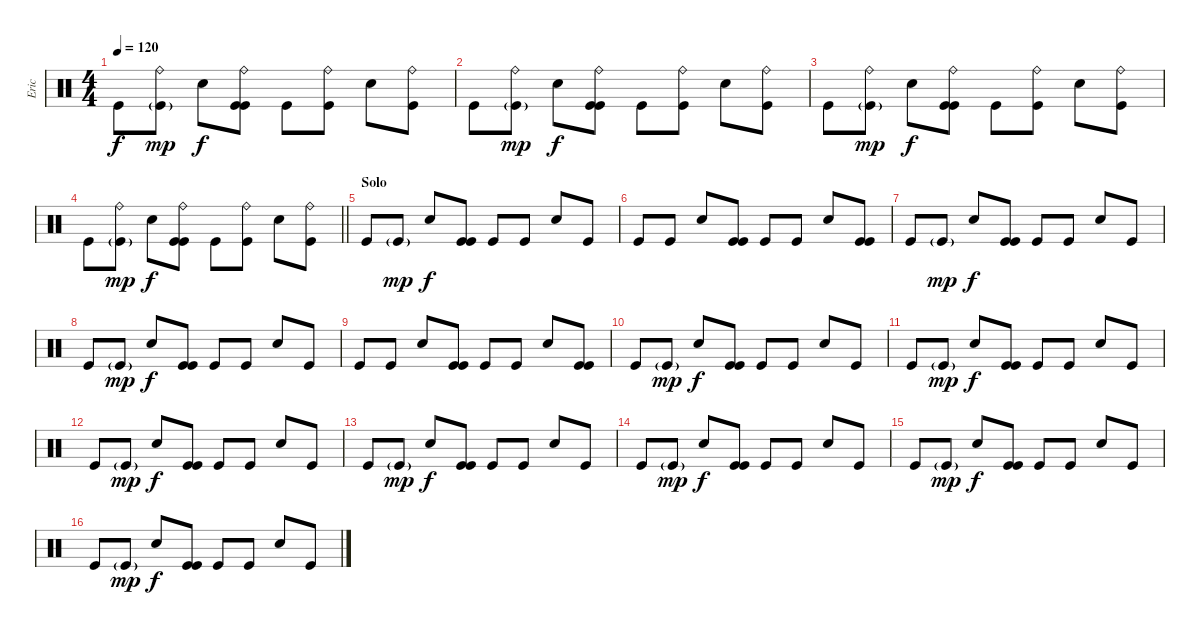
\track ("Eric" "Eric") {instrument percussion}
\staff {score}
\articulation defaults
\ts (4 4)
\tempo 120
\clef neutral
\ks c "Kick (hit)".8{dy f}
("Kick (hit)"{g} "Ride (bell)").8{dy mp} "Electric Snare (hit)".8{dy f} ("Kick (hit)" "Kick (hit)" "Ride (bell)").8 "Kick (hit)".8 ("Kick (hit)" "Ride (bell)").8 "Electric Snare (hit)".8 ("Kick (hit)" "Ride (bell)").8 |
"Kick (hit)".8 ("Kick (hit)"{g} "Ride (bell)").8{dy mp} "Electric Snare (hit)".8{dy f} ("Kick (hit)" "Kick (hit)" "Ride (bell)").8 "Kick (hit)".8 ("Kick (hit)" "Ride (bell)").8 "Electric Snare (hit)".8 ("Kick (hit)" "Ride (bell)").8 |
"Kick (hit)".8 ("Kick (hit)"{g} "Ride (bell)").8{dy mp} "Electric Snare (hit)".8{dy f} ("Kick (hit)" "Kick (hit)" "Ride (bell)").8 "Kick (hit)".8 ("Kick (hit)" "Ride (bell)").8 "Electric Snare (hit)".8 ("Kick (hit)" "Ride (bell)").8 |
\barLineRight lightlight "Kick (hit)".8
("Kick (hit)"{g} "Ride (bell)").8{dy mp} "Electric Snare (hit)".8{dy f} ("Kick (hit)" "Kick (hit)" "Ride (bell)").8 "Kick (hit)".8 ("Kick (hit)" "Ride (bell)").8 "Electric Snare (hit)".8 ("Kick (hit)" "Ride (bell)").8 |
\section ("" "Solo")
"Kick (hit)".8 "Kick (hit)"{g}.8{dy mp} "Electric Snare (hit)".8{dy f} ("Kick (hit)" "Kick (hit)").8 "Kick (hit)".8 "Kick (hit)".8 "Electric Snare (hit)".8 "Kick (hit)".8 |
"Kick (hit)".8 "Kick (hit)".8 "Electric Snare (hit)".8 ("Kick (hit)" "Kick (hit)").8 "Kick (hit)".8 "Kick (hit)".8 "Electric Snare (hit)".8 ("Kick (hit)" "Kick (hit)").8 |
"Kick (hit)".8 "Kick (hit)"{g}.8{dy mp} "Electric Snare (hit)".8{dy f} ("Kick (hit)" "Kick (hit)").8 "Kick (hit)".8 "Kick (hit)".8 "Electric Snare (hit)".8 "Kick (hit)".8 |
"Kick (hit)".8 "Kick (hit)"{g}.8{dy mp} "Electric Snare (hit)".8{dy f} ("Kick (hit)" "Kick (hit)").8 "Kick (hit)".8 "Kick (hit)".8 "Electric Snare (hit)".8 "Kick (hit)".8 |
"Kick (hit)".8 "Kick (hit)".8 "Electric Snare (hit)".8 ("Kick (hit)" "Kick (hit)").8 "Kick (hit)".8 "Kick (hit)".8 "Electric Snare (hit)".8 ("Kick (hit)" "Kick (hit)").8 |
"Kick (hit)".8 "Kick (hit)"{g}.8{dy mp} "Electric Snare (hit)".8{dy f} ("Kick (hit)" "Kick (hit)").8 "Kick (hit)".8 "Kick (hit)".8 "Electric Snare (hit)".8 "Kick (hit)".8 |
"Kick (hit)".8 "Kick (hit)"{g}.8{dy mp} "Electric Snare (hit)".8{dy f} ("Kick (hit)" "Kick (hit)").8 "Kick (hit)".8 "Kick (hit)".8 "Electric Snare (hit)".8 "Kick (hit)".8 |
"Kick (hit)".8 "Kick (hit)"{g}.8{dy mp} "Electric Snare (hit)".8{dy f} ("Kick (hit)" "Kick (hit)").8 "Kick (hit)".8 "Kick (hit)".8 "Electric Snare (hit)".8 "Kick (hit)".8 |
"Kick (hit)".8 "Kick (hit)"{g}.8{dy mp} "Electric Snare (hit)".8{dy f} ("Kick (hit)" "Kick (hit)").8 "Kick (hit)".8 "Kick (hit)".8 "Electric Snare (hit)".8 "Kick (hit)".8 |
"Kick (hit)".8 "Kick (hit)"{g}.8{dy mp} "Electric Snare (hit)".8{dy f} ("Kick (hit)" "Kick (hit)").8 "Kick (hit)".8 "Kick (hit)".8 "Electric Snare (hit)".8 "Kick (hit)".8 |
"Kick (hit)".8 "Kick (hit)"{g}.8{dy mp} "Electric Snare (hit)".8{dy f} ("Kick (hit)" "Kick (hit)").8 "Kick (hit)".8 "Kick (hit)".8 "Electric Snare (hit)".8 "Kick (hit)".8 |
"Kick (hit)".8 "Kick (hit)"{g}.8{dy mp} "Electric Snare (hit)".8{dy f} ("Kick (hit)" "Kick (hit)").8 "Kick (hit)".8 "Kick (hit)".8 "Electric Snare (hit)".8 "Kick (hit)".8
